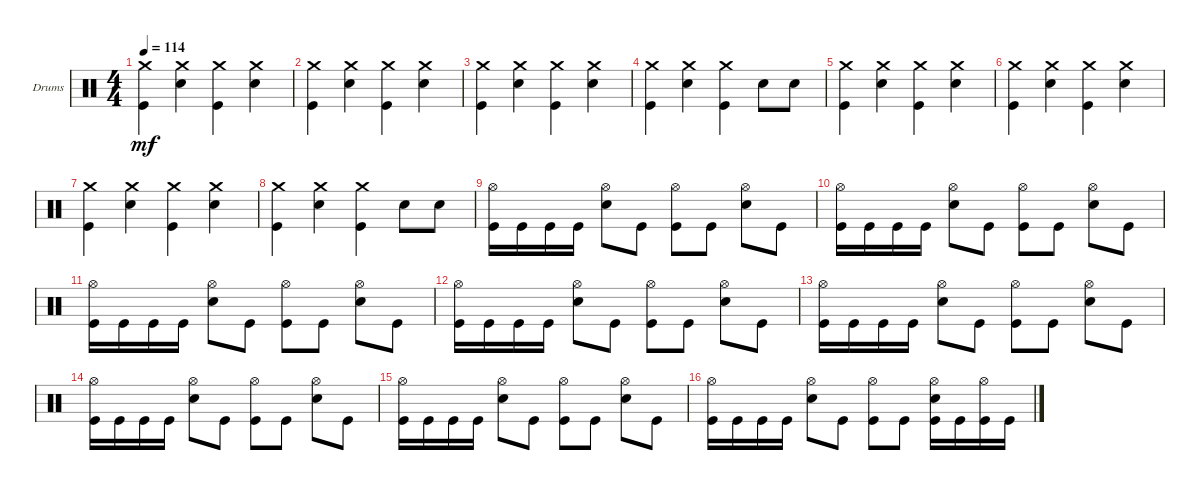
\defaultSystemsLayout 4
\bracketExtendMode groupsimilarinstruments
\firstSystemTrackNameOrientation horizontal
\otherSystemsTrackNameOrientation horizontal
\track ("Drums Inferno" "Drums") {instrument percussion}
\staff {score}
\articulation defaults
\ts (4 4)
\tempo 114
\clef neutral
\scale
0.333333
\ks c
("Crash medium (hit)" "Kick (hit)").4{dy mf} ("Crash medium (hit)" "Snare (hit) 2").4 ("Crash medium (hit)" "Kick (hit)").4 ("Crash medium (hit)" "Snare (hit) 2").4 |
\scale
0.333333 ("Crash medium (hit)" "Kick (hit)").4 ("Crash medium (hit)" "Snare (hit) 2").4 ("Crash medium (hit)" "Kick (hit)").4 ("Crash medium (hit)" "Snare (hit) 2").4 |
\scale
0.333333 ("Crash medium (hit)" "Kick (hit)").4 ("Crash medium (hit)" "Snare (hit) 2").4 ("Crash medium (hit)" "Kick (hit)").4 ("Crash medium (hit)" "Snare (hit) 2").4 |
\scale
0.333333 ("Crash medium (hit)" "Kick (hit)").4 ("Crash medium (hit)" "Snare (hit) 2").4 ("Crash medium (hit)" "Kick (hit)").4 "Snare (hit) 2".8 "Snare (hit) 2".8 |
\scale
0.333333 ("Crash medium (hit)" "Kick (hit)").4 ("Crash medium (hit)" "Snare (hit) 2").4 ("Crash medium (hit)" "Kick (hit)").4 ("Crash medium (hit)" "Snare (hit) 2").4 |
\scale
0.333333 ("Crash medium (hit)" "Kick (hit)").4 ("Crash medium (hit)" "Snare (hit) 2").4 ("Crash medium (hit)" "Kick (hit)").4 ("Crash medium (hit)" "Snare (hit) 2").4 |
\scale
0.333333 ("Crash medium (hit)" "Kick (hit)").4 ("Crash medium (hit)" "Snare (hit) 2").4 ("Crash medium (hit)" "Kick (hit)").4 ("Crash medium (hit)" "Snare (hit) 2").4 |
\scale
0.333333 ("Crash medium (hit)" "Kick (hit)").4 ("Crash medium (hit)" "Snare (hit) 2").4 ("Crash medium (hit)" "Kick (hit)").4 "Snare (hit) 2".8 "Snare (hit) 2".8 |
\scale
0.333333 ("Kick (hit)" "Hi-Hat (open)").16 "Kick (hit)".16 "Kick (hit)".16 "Kick (hit)".16 ("Hi-Hat (open)" "Snare (hit) 2").8 "Kick (hit)".8 ("Hi-Hat (open)" "Kick (hit)").8 "Kick (hit)".8 ("Hi-Hat (open)" "Snare (hit) 2").8 "Kick (hit)".8 |
\scale
0.333333 ("Kick (hit)" "Hi-Hat (open)").16 "Kick (hit)".16 "Kick (hit)".16 "Kick (hit)".16 ("Hi-Hat (open)" "Snare (hit) 2").8 "Kick (hit)".8 ("Hi-Hat (open)" "Kick (hit)").8 "Kick (hit)".8 ("Hi-Hat (open)" "Snare (hit) 2").8 "Kick (hit)".8 |
\scale
0.333333 ("Kick (hit)" "Hi-Hat (open)").16 "Kick (hit)".16 "Kick (hit)".16 "Kick (hit)".16 ("Hi-Hat (open)" "Snare (hit) 2").8 "Kick (hit)".8 ("Hi-Hat (open)" "Kick (hit)").8 "Kick (hit)".8 ("Hi-Hat (open)" "Snare (hit) 2").8 "Kick (hit)".8 |
\scale
0.333333 ("Kick (hit)" "Hi-Hat (open)").16 "Kick (hit)".16 "Kick (hit)".16 "Kick (hit)".16 ("Hi-Hat (open)" "Snare (hit) 2").8 "Kick (hit)".8 ("Hi-Hat (open)" "Kick (hit)").8 "Kick (hit)".8 ("Hi-Hat (open)" "Snare (hit) 2").8 "Kick (hit)".8 |
\scale
0.333333 ("Kick (hit)" "Hi-Hat (open)").16 "Kick (hit)".16 "Kick (hit)".16 "Kick (hit)".16 ("Hi-Hat (open)" "Snare (hit) 2").8 "Kick (hit)".8 ("Hi-Hat (open)" "Kick (hit)").8 "Kick (hit)".8 ("Hi-Hat (open)" "Snare (hit) 2").8 "Kick (hit)".8 |
\scale
0.333333 ("Kick (hit)" "Hi-Hat (open)").16 "Kick (hit)".16 "Kick (hit)".16 "Kick (hit)".16 ("Hi-Hat (open)" "Snare (hit) 2").8 "Kick (hit)".8 ("Hi-Hat (open)" "Kick (hit)").8 "Kick (hit)".8 ("Hi-Hat (open)" "Snare (hit) 2").8 "Kick (hit)".8 |
\scale
0.333333 ("Kick (hit)" "Hi-Hat (open)").16 "Kick (hit)".16 "Kick (hit)".16 "Kick (hit)".16 ("Hi-Hat (open)" "Snare (hit) 2").8 "Kick (hit)".8 ("Hi-Hat (open)" "Kick (hit)").8 "Kick (hit)".8 ("Hi-Hat (open)" "Snare (hit) 2").8 "Kick (hit)".8 |
\scale
0.333333 ("Kick (hit)" "Hi-Hat (open)").16 "Kick (hit)".16 "Kick (hit)".16 "Kick (hit)".16 ("Hi-Hat (open)" "Snare (hit) 2").8 "Kick (hit)".8 ("Hi-Hat (open)" "Kick (hit)").8 "Kick (hit)".8 ("Hi-Hat (open)" "Kick (hit)" "Snare (hit) 2").16 "Kick (hit)".16 ("Kick (hit)" "Hi-Hat (open)").16 "Kick (hit)".16
